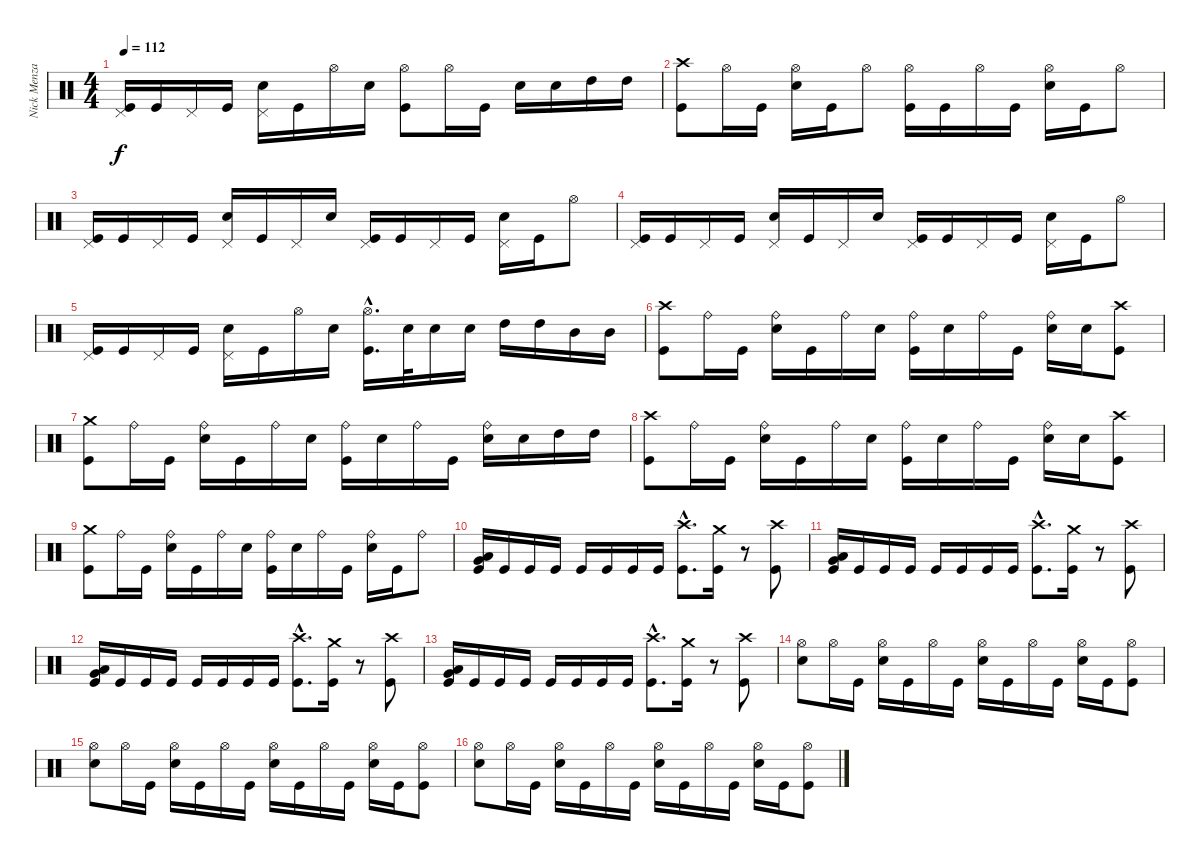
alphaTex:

\track ("Nick Menza" "Nick Menza") {instrument percussion}
\staff {score}
\articulation defaults
\ts (4 4)
\tempo 112
\clef neutral
\ks c
("Pedal Hi-Hat (hit)" "Kick (hit)").16{dy f} "Kick (hit)".16 "Pedal Hi-Hat (hit)".16 "Kick (hit)".16 ("Pedal Hi-Hat (hit)" "Snare (hit) 2").16 "Kick (hit)".16 "Hi-Hat (open)".16 "Snare (hit) 2".16 ("Hi-Hat (open)" "Kick (hit)").8 "Hi-Hat (open)".16 "Kick (hit)".16 "Snare (hit) 2".16 "Snare (hit) 2".16 "High Tom (hit)".16 "High Tom (hit)".16 |
("Crash high (hit)" "Kick (hit)").8 "Hi-Hat (open)".16 "Kick (hit)".16 ("Hi-Hat (open)" "Snare (hit) 2").16 "Kick (hit)".16 "Hi-Hat (open)".8 ("Hi-Hat (open)" "Kick (hit)").16 "Kick (hit)".16 "Hi-Hat (open)".16 "Kick (hit)".16 ("Hi-Hat (open)" "Snare (hit) 2").16 "Kick (hit)".16 "Hi-Hat (open)".8 |
("Pedal Hi-Hat (hit)" "Kick (hit)").16 "Kick (hit)".16 "Pedal Hi-Hat (hit)".16 "Kick (hit)".16 ("Pedal Hi-Hat (hit)" "Snare (hit) 2").16 "Kick (hit)".16 "Pedal Hi-Hat (hit)".16 "Snare (hit) 2".16 ("Pedal Hi-Hat (hit)" "Kick (hit)").16 "Kick (hit)".16 "Pedal Hi-Hat (hit)".16 "Kick (hit)".16 ("Pedal Hi-Hat (hit)" "Snare (hit) 2").16 "Kick (hit)".16 "Hi-Hat (open)".8 |
("Pedal Hi-Hat (hit)" "Kick (hit)").16 "Kick (hit)".16 "Pedal Hi-Hat (hit)".16 "Kick (hit)".16 ("Pedal Hi-Hat (hit)" "Snare (hit) 2").16 "Kick (hit)".16 "Pedal Hi-Hat (hit)".16 "Snare (hit) 2".16 ("Pedal Hi-Hat (hit)" "Kick (hit)").16 "Kick (hit)".16 "Pedal Hi-Hat (hit)".16 "Kick (hit)".16 ("Pedal Hi-Hat (hit)" "Snare (hit) 2").16 "Kick (hit)".16 "Hi-Hat (open)".8 |
("Pedal Hi-Hat (hit)" "Kick (hit)").16 "Kick (hit)".16 "Pedal Hi-Hat (hit)".16 "Kick (hit)".16 ("Pedal Hi-Hat (hit)" "Snare (hit) 2").16 "Kick (hit)".16 "Hi-Hat (open)".16 "Snare (hit) 2".16 ("Hi-Hat (open)"{hac} "Kick (hit)"{hac}).16{d} "Snare (hit) 2".32 "Snare (hit) 2".16 "Snare (hit) 2".16 "High Tom (hit)".16 "High Tom (hit)".16 "Mid Tom (hit)".16 "Mid Tom (hit)".16 |
("Crash high (hit)" "Kick (hit)").8 "Ride (bell)".16 "Kick (hit)".16 ("Ride (bell)" "Snare (hit) 2").16 "Kick (hit)".16 "Ride (bell)".16 "Snare (hit) 2".16 ("Ride (bell)" "Kick (hit)").16 "Snare (hit) 2".16 "Ride (bell)".16 "Kick (hit)".16 ("Ride (bell)" "Snare (hit) 2").16 "Snare (hit) 2".16 ("Crash high (hit)" "Kick (hit)").8 |
("Crash medium (hit)" "Kick (hit)").8 "Ride (bell)".16 "Kick (hit)".16 ("Ride (bell)" "Snare (hit) 2").16 "Kick (hit)".16 "Ride (bell)".16 "Snare (hit) 2".16 ("Ride (bell)" "Kick (hit)").16 "Snare (hit) 2".16 "Ride (bell)".16 "Kick (hit)".16 ("Ride (bell)" "Snare (hit) 2").16 "Snare (hit) 2".16 "High Tom (hit)".16 "High Tom (hit)".16 |
("Crash high (hit)" "Kick (hit)").8 "Ride (bell)".16 "Kick (hit)".16 ("Ride (bell)" "Snare (hit) 2").16 "Kick (hit)".16 "Ride (bell)".16 "Snare (hit) 2".16 ("Ride (bell)" "Kick (hit)").16 "Snare (hit) 2".16 "Ride (bell)".16 "Kick (hit)".16 ("Ride (bell)" "Snare (hit) 2").16 "Snare (hit) 2".16 ("Crash high (hit)" "Kick (hit)").8 |
("Crash medium (hit)" "Kick (hit)").8 "Ride (bell)".16 "Kick (hit)".16 ("Ride (bell)" "Snare (hit) 2").16 "Kick (hit)".16 "Ride (bell)".16 "Snare (hit) 2".16 ("Ride (bell)" "Kick (hit)").16 "Snare (hit) 2".16 "Ride (bell)".16 "Kick (hit)".16 ("Ride (bell)" "Snare (hit) 2").16 "Kick (hit)".16 "Ride (bell)".8 |
("Very Low Tom (hit)" "Low Floor Tom (hit)" "Kick (hit)").16 "Kick (hit)".16 "Kick (hit)".16 "Kick (hit)".16 "Kick (hit)".16 "Kick (hit)".16 "Kick (hit)".16 "Kick (hit)".16 ("Crash high (hit)"{hac} "Kick (hit)"{hac}).8{d} ("Crash medium (hit)" "Kick (hit)").16 r.8 ("Crash high (hit)" "Kick (hit)").8 |
("Very Low Tom (hit)" "Low Floor Tom (hit)" "Kick (hit)").16 "Kick (hit)".16 "Kick (hit)".16 "Kick (hit)".16 "Kick (hit)".16 "Kick (hit)".16 "Kick (hit)".16 "Kick (hit)".16 ("Crash high (hit)"{hac} "Kick (hit)"{hac}).8{d} ("Crash medium (hit)" "Kick (hit)").16 r.8 ("Crash high (hit)" "Kick (hit)").8 |
("Very Low Tom (hit)" "Low Floor Tom (hit)" "Kick (hit)").16 "Kick (hit)".16 "Kick (hit)".16 "Kick (hit)".16 "Kick (hit)".16 "Kick (hit)".16 "Kick (hit)".16 "Kick (hit)".16 ("Crash high (hit)"{hac} "Kick (hit)"{hac}).8{d} ("Crash medium (hit)" "Kick (hit)").16 r.8 ("Crash high (hit)" "Kick (hit)").8 |
("Very Low Tom (hit)" "Low Floor Tom (hit)" "Kick (hit)").16 "Kick (hit)".16 "Kick (hit)".16 "Kick (hit)".16 "Kick (hit)".16 "Kick (hit)".16 "Kick (hit)".16 "Kick (hit)".16 ("Crash high (hit)"{hac} "Kick (hit)"{hac}).8{d} ("Crash medium (hit)" "Kick (hit)").16 r.8 ("Crash high (hit)" "Kick (hit)").8 |
("Hi-Hat (open)" "Snare (hit) 2").8 "Hi-Hat (open)".16 "Kick (hit)".16 ("Hi-Hat (open)" "Snare (hit) 2").16 "Kick (hit)".16 "Hi-Hat (open)".16 "Kick (hit)".16 ("Hi-Hat (open)" "Snare (hit) 2").16 "Kick (hit)".16 "Hi-Hat (open)".16 "Kick (hit)".16 ("Hi-Hat (open)" "Snare (hit) 2").16 "Kick (hit)".16 ("Hi-Hat (open)" "Kick (hit)").8 |
("Hi-Hat (open)" "Snare (hit) 2").8 "Hi-Hat (open)".16 "Kick (hit)".16 ("Hi-Hat (open)" "Snare (hit) 2").16 "Kick (hit)".16 "Hi-Hat (open)".16 "Kick (hit)".16 ("Hi-Hat (open)" "Snare (hit) 2").16 "Kick (hit)".16 "Hi-Hat (open)".16 "Kick (hit)".16 ("Hi-Hat (open)" "Snare (hit) 2").16 "Kick (hit)".16 ("Hi-Hat (open)" "Kick (hit)").8 |
("Hi-Hat (open)" "Snare (hit) 2").8 "Hi-Hat (open)".16 "Kick (hit)".16 ("Hi-Hat (open)" "Snare (hit) 2").16 "Kick (hit)".16 "Hi-Hat (open)".16 "Kick (hit)".16 ("Hi-Hat (open)" "Snare (hit) 2").16 "Kick (hit)".16 "Hi-Hat (open)".16 "Kick (hit)".16 ("Hi-Hat (open)" "Snare (hit) 2").16 "Kick (hit)".16 ("Hi-Hat (open)" "Kick (hit)").8
